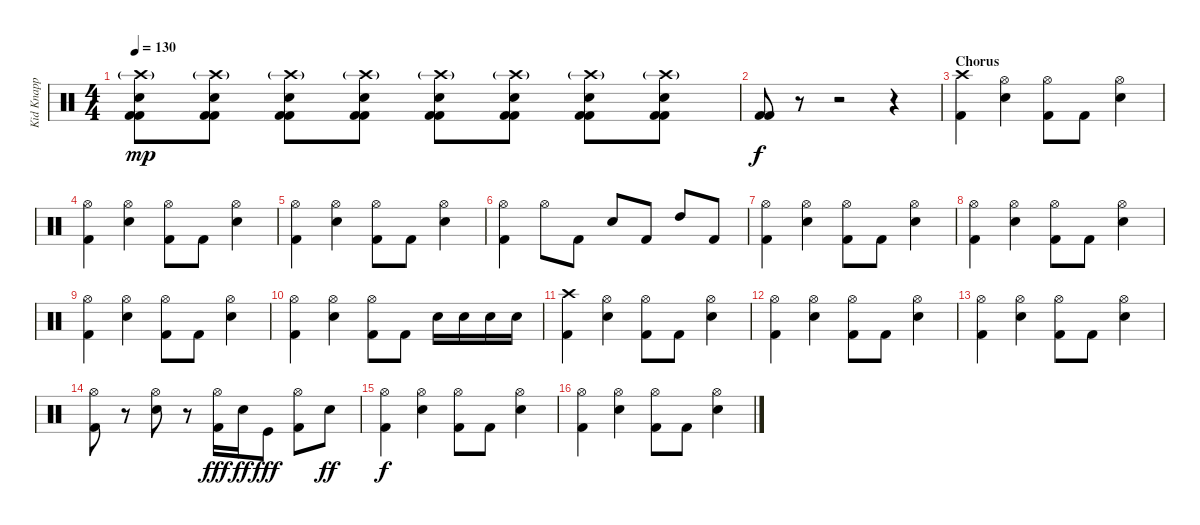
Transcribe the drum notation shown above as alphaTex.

\track ("Kid Knapp (Drums)" "Kid Knapp ") {instrument percussion}
\staff {score}
\articulation defaults
\ts (4 4)
\tempo 130
\clef neutral
\ks c
("Crash high (hit)"{g} "Electric Snare (hit)" "Kick (hit) 2" "Kick (hit) 2").8{dy mp volume 7} ("Crash high (hit)"{g} "Electric Snare (hit)" "Kick (hit) 2" "Kick (hit) 2").8{volume 16} ("Crash high (hit)"{g} "Electric Snare (hit)" "Kick (hit) 2" "Kick (hit) 2").8 ("Crash high (hit)"{g} "Electric Snare (hit)" "Kick (hit) 2" "Kick (hit) 2").8 ("Crash high (hit)"{g} "Electric Snare (hit)" "Kick (hit) 2" "Kick (hit) 2").8 ("Crash high (hit)"{g} "Electric Snare (hit)" "Kick (hit) 2" "Kick (hit) 2").8 ("Crash high (hit)"{g} "Electric Snare (hit)" "Kick (hit) 2" "Kick (hit) 2").8 ("Crash high (hit)"{g} "Electric Snare (hit)" "Kick (hit) 2" "Kick (hit) 2").8 |
("Kick (hit) 2" "Kick (hit) 2").8{dy f} r.8 r.2 r.4 |
\section ("" "Chorus")
("Crash high (hit)" "Kick (hit) 2").4 ("Hi-Hat (open)" "Electric Snare (hit)").4 ("Hi-Hat (open)" "Kick (hit) 2").8 "Kick (hit) 2".8 ("Hi-Hat (open)" "Electric Snare (hit)").4 |
("Hi-Hat (open)" "Kick (hit) 2").4 ("Hi-Hat (open)" "Electric Snare (hit)").4 ("Hi-Hat (open)" "Kick (hit) 2").8 "Kick (hit) 2".8 ("Hi-Hat (open)" "Electric Snare (hit)").4 |
("Hi-Hat (open)" "Kick (hit) 2").4 ("Hi-Hat (open)" "Electric Snare (hit)").4 ("Hi-Hat (open)" "Kick (hit) 2").8 "Kick (hit) 2".8 ("Hi-Hat (open)" "Electric Snare (hit)").4 |
("Hi-Hat (open)" "Kick (hit) 2").4 "Hi-Hat (open)".8 "Kick (hit) 2".8 "Electric Snare (hit)".8 "Kick (hit) 2".8 "High Tom (hit)".8 "Kick (hit) 2".8 |
("Hi-Hat (open)" "Kick (hit) 2").4 ("Hi-Hat (open)" "Electric Snare (hit)").4 ("Hi-Hat (open)" "Kick (hit) 2").8 "Kick (hit) 2".8 ("Hi-Hat (open)" "Electric Snare (hit)").4 |
("Hi-Hat (open)" "Kick (hit) 2").4 ("Hi-Hat (open)" "Electric Snare (hit)").4 ("Hi-Hat (open)" "Kick (hit) 2").8 "Kick (hit) 2".8 ("Hi-Hat (open)" "Electric Snare (hit)").4 |
("Hi-Hat (open)" "Kick (hit) 2").4 ("Hi-Hat (open)" "Electric Snare (hit)").4 ("Hi-Hat (open)" "Kick (hit) 2").8 "Kick (hit) 2".8 ("Hi-Hat (open)" "Electric Snare (hit)").4 |
("Hi-Hat (open)" "Kick (hit) 2").4 ("Hi-Hat (open)" "Electric Snare (hit)").4 ("Hi-Hat (open)" "Kick (hit) 2").8 "Kick (hit) 2".8 "Electric Snare (hit)".16 "Electric Snare (hit)".16 "Electric Snare (hit)".16 "Electric Snare (hit)".16 |
("Crash high (hit)" "Kick (hit) 2").4 ("Hi-Hat (open)" "Electric Snare (hit)").4 ("Hi-Hat (open)" "Kick (hit) 2").8 "Kick (hit) 2".8 ("Hi-Hat (open)" "Electric Snare (hit)").4 |
("Hi-Hat (open)" "Kick (hit) 2").4 ("Hi-Hat (open)" "Electric Snare (hit)").4 ("Hi-Hat (open)" "Kick (hit) 2").8 "Kick (hit) 2".8 ("Hi-Hat (open)" "Electric Snare (hit)").4 |
("Hi-Hat (open)" "Kick (hit) 2").4 ("Hi-Hat (open)" "Electric Snare (hit)").4 ("Hi-Hat (open)" "Kick (hit) 2").8 "Kick (hit) 2".8 ("Hi-Hat (open)" "Electric Snare (hit)").4 |
("Hi-Hat (open)" "Kick (hit) 2").8 r.8 ("Hi-Hat (open)" "Electric Snare (hit)").8 r.8 ("Hi-Hat (open)" "Kick (hit) 2").16{dy fff} "Electric Snare (hit)".16{dy ff} "Kick (hit)".8{dy fff} ("Hi-Hat (open)" "Kick (hit) 2").8 "Electric Snare (hit)".8{dy ff} |
("Hi-Hat (open)" "Kick (hit) 2").4{dy f} ("Hi-Hat (open)" "Electric Snare (hit)").4 ("Hi-Hat (open)" "Kick (hit) 2").8 "Kick (hit) 2".8 ("Hi-Hat (open)" "Electric Snare (hit)").4 |
("Hi-Hat (open)" "Kick (hit) 2").4 ("Hi-Hat (open)" "Electric Snare (hit)").4 ("Hi-Hat (open)" "Kick (hit) 2").8 "Kick (hit) 2".8 ("Hi-Hat (open)" "Electric Snare (hit)").4
